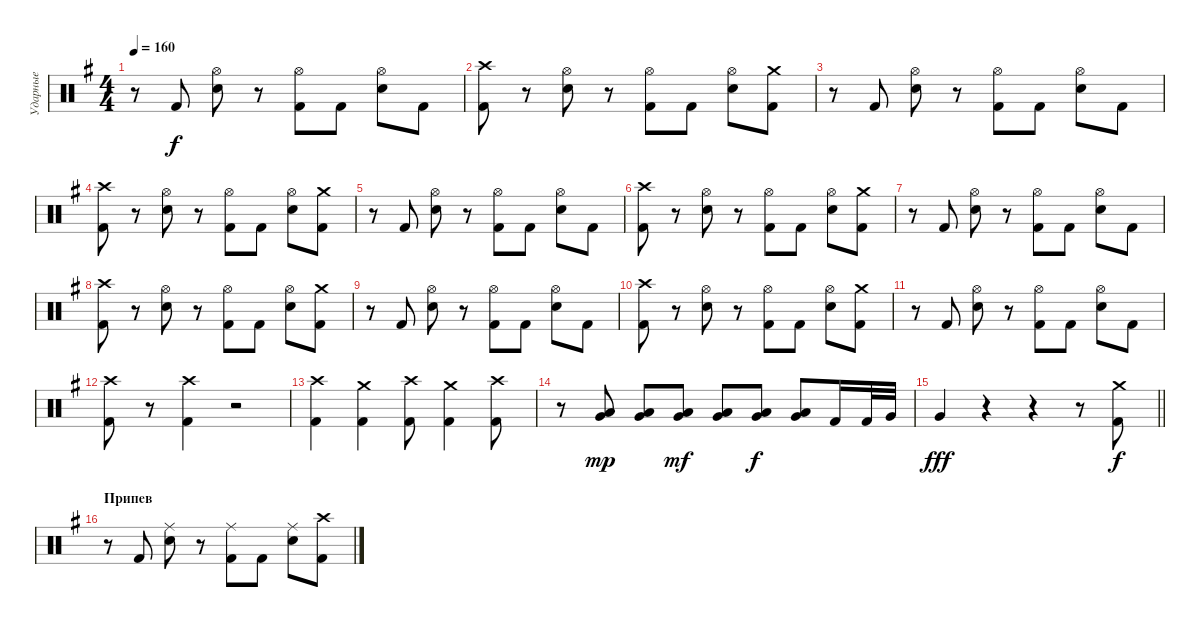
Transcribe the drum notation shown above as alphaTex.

\track ("Ударные" "Ударные") {instrument percussion}
\staff {score}
\articulation defaults
\ts (4 4)
\tempo 160
\clef neutral
\ks eminor
r.8{dy f} "Kick (hit) 2".8 ("Hi-Hat (open)" "Electric Snare (hit)").8 r.8 ("Hi-Hat (open)" "Kick (hit) 2").8 "Kick (hit) 2".8 ("Hi-Hat (open)" "Electric Snare (hit)").8 "Kick (hit) 2".8 |
("Crash high (hit)" "Kick (hit) 2").8 r.8 ("Hi-Hat (open)" "Electric Snare (hit)").8 r.8 ("Hi-Hat (open)" "Kick (hit) 2").8 "Kick (hit) 2".8 ("Hi-Hat (open)" "Electric Snare (hit)").8 ("Crash medium (hit)" "Kick (hit) 2").8 |
r.8 "Kick (hit) 2".8 ("Hi-Hat (open)" "Electric Snare (hit)").8 r.8 ("Hi-Hat (open)" "Kick (hit) 2").8 "Kick (hit) 2".8 ("Hi-Hat (open)" "Electric Snare (hit)").8 "Kick (hit) 2".8 |
("Crash high (hit)" "Kick (hit) 2").8 r.8 ("Hi-Hat (open)" "Electric Snare (hit)").8 r.8 ("Hi-Hat (open)" "Kick (hit) 2").8 "Kick (hit) 2".8 ("Hi-Hat (open)" "Electric Snare (hit)").8 ("Crash medium (hit)" "Kick (hit) 2").8 |
r.8 "Kick (hit) 2".8 ("Hi-Hat (open)" "Electric Snare (hit)").8 r.8 ("Hi-Hat (open)" "Kick (hit) 2").8 "Kick (hit) 2".8 ("Hi-Hat (open)" "Electric Snare (hit)").8 "Kick (hit) 2".8 |
("Crash high (hit)" "Kick (hit) 2").8 r.8 ("Hi-Hat (open)" "Electric Snare (hit)").8 r.8 ("Hi-Hat (open)" "Kick (hit) 2").8 "Kick (hit) 2".8 ("Hi-Hat (open)" "Electric Snare (hit)").8 ("Crash medium (hit)" "Kick (hit) 2").8 |
r.8 "Kick (hit) 2".8 ("Hi-Hat (open)" "Electric Snare (hit)").8 r.8 ("Hi-Hat (open)" "Kick (hit) 2").8 "Kick (hit) 2".8 ("Hi-Hat (open)" "Electric Snare (hit)").8 "Kick (hit) 2".8 |
("Crash high (hit)" "Kick (hit) 2").8 r.8 ("Hi-Hat (open)" "Electric Snare (hit)").8 r.8 ("Hi-Hat (open)" "Kick (hit) 2").8 "Kick (hit) 2".8 ("Hi-Hat (open)" "Electric Snare (hit)").8 ("Crash medium (hit)" "Kick (hit) 2").8 |
r.8 "Kick (hit) 2".8 ("Hi-Hat (open)" "Electric Snare (hit)").8 r.8 ("Hi-Hat (open)" "Kick (hit) 2").8 "Kick (hit) 2".8 ("Hi-Hat (open)" "Electric Snare (hit)").8 "Kick (hit) 2".8 |
("Crash high (hit)" "Kick (hit) 2").8 r.8 ("Hi-Hat (open)" "Electric Snare (hit)").8 r.8 ("Hi-Hat (open)" "Kick (hit) 2").8 "Kick (hit) 2".8 ("Hi-Hat (open)" "Electric Snare (hit)").8 ("Crash medium (hit)" "Kick (hit) 2").8 |
r.8 "Kick (hit) 2".8 ("Hi-Hat (open)" "Electric Snare (hit)").8 r.8 ("Hi-Hat (open)" "Kick (hit) 2").8 "Kick (hit) 2".8 ("Hi-Hat (open)" "Electric Snare (hit)").8 "Kick (hit) 2".8 |
("Crash high (hit)" "Kick (hit) 2").8 r.8 ("Crash high (hit)" "Kick (hit) 2").4 r.2 |
("Crash high (hit)" "Kick (hit) 2").4 ("Crash medium (hit)" "Kick (hit) 2").4 ("Crash high (hit)" "Kick (hit) 2").8 ("Crash medium (hit)" "Kick (hit) 2").4 ("Crash high (hit)" "Kick (hit) 2").8 |
r.8 ("Low Tom (hit)" "Very Low Tom (hit)").8{dy mp} ("Low Tom (hit)" "Very Low Tom (hit)").8 ("Low Tom (hit)" "Very Low Tom (hit)").8{dy mf} ("Low Tom (hit)" "Very Low Tom (hit)").8 ("Low Tom (hit)" "Very Low Tom (hit)").8{dy f} ("Low Tom (hit)" "Very Low Tom (hit)").8 "Kick (hit) 2".16 "Kick (hit) 2".32 "Very Low Tom (hit)".32 |
\barLineRight lightlight "Very Low Tom (hit)".4{dy fff}
r.4 r.4 r.8 ("Crash medium (hit)" "Kick (hit) 2").8{dy f} |
\section ("" "Припев")
r.8 "Kick (hit) 2".8 ("Ride (middle)" "Electric Snare (hit)").8 r.8 ("Ride (middle)" "Kick (hit) 2").8 "Kick (hit) 2".8 ("Ride (middle)" "Electric Snare (hit)").8 ("Crash high (hit)" "Kick (hit) 2").8
